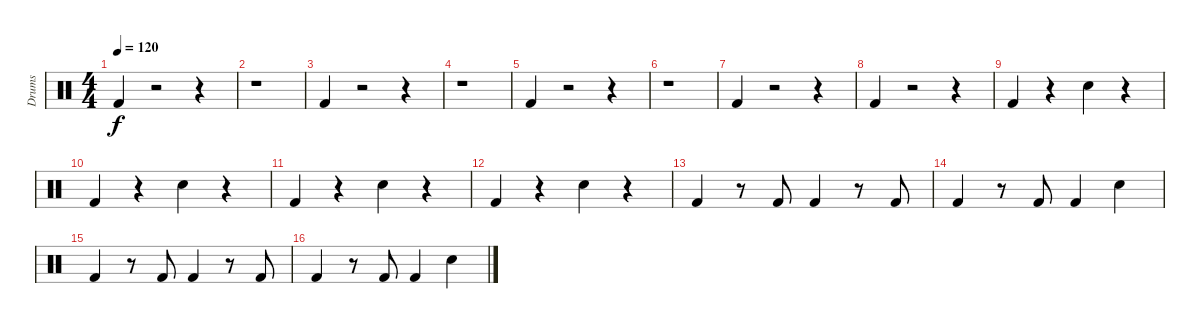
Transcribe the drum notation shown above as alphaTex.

\track ("Drums" "Drums") {instrument percussion}
\staff {score}
\articulation defaults
\ts (4 4)
\tempo 120
\clef neutral
\ks c "Kick (hit) 2".4{dy f}
r.2 r.4 |
r.1 |
"Kick (hit) 2".4 r.2 r.4 |
r.1 |
"Kick (hit) 2".4 r.2 r.4 |
r.1 |
"Kick (hit) 2".4 r.2 r.4 |
"Kick (hit) 2".4 r.2 r.4 |
\section ("" "")
"Kick (hit) 2".4 r.4 "Snare (hit) 2".4 r.4 |
"Kick (hit) 2".4 r.4 "Snare (hit) 2".4 r.4 |
"Kick (hit) 2".4 r.4 "Snare (hit) 2".4 r.4 |
"Kick (hit) 2".4 r.4 "Snare (hit) 2".4 r.4 |
"Kick (hit) 2".4 r.8 "Kick (hit) 2".8 "Kick (hit) 2".4 r.8 "Kick (hit) 2".8 |
"Kick (hit) 2".4 r.8 "Kick (hit) 2".8 "Kick (hit) 2".4 "Snare (hit) 2".4 |
"Kick (hit) 2".4 r.8 "Kick (hit) 2".8 "Kick (hit) 2".4 r.8 "Kick (hit) 2".8 |
"Kick (hit) 2".4 r.8 "Kick (hit) 2".8 "Kick (hit) 2".4 "Snare (hit) 2".4
